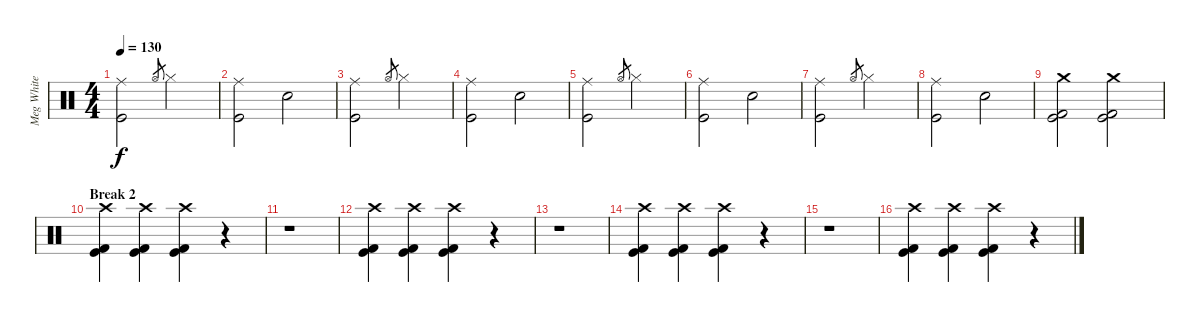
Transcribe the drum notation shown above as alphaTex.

\track ("Meg White (Drums)" "Meg White ") {instrument percussion}
\staff {score}
\articulation defaults
\ts (4 4)
\tempo 130
\clef neutral
\ks c
("Kick (hit)" "Ride (middle)").2{dy f} "Hi-Hat (open)"{h}.8{gr} "Hi-Hat (closed)".2 |
("Kick (hit)" "Ride (middle)").2 "Snare (hit) 2".2 |
("Kick (hit)" "Ride (middle)").2 "Hi-Hat (open)"{h}.8{gr} "Hi-Hat (closed)".2 |
("Kick (hit)" "Ride (middle)").2 "Snare (hit) 2".2 |
("Kick (hit)" "Ride (middle)").2 "Hi-Hat (open)"{h}.8{gr} "Hi-Hat (closed)".2 |
("Kick (hit)" "Ride (middle)").2 "Snare (hit) 2".2 |
("Kick (hit)" "Ride (middle)").2 "Hi-Hat (open)"{h}.8{gr} "Hi-Hat (closed)".2 |
("Kick (hit)" "Ride (middle)").2 "Snare (hit) 2".2 |
("Kick (hit)" "Kick (hit) 2" "Crash medium (hit)").2 ("Kick (hit)" "Kick (hit) 2" "Crash medium (hit)").2 |
\section ("" "Break 2")
("Kick (hit)" "Kick (hit) 2" "Crash high (hit)").4 ("Kick (hit)" "Kick (hit) 2" "Crash high (hit)").4 ("Kick (hit)" "Kick (hit) 2" "Crash high (hit)").4 r.4 |
r.1 |
("Kick (hit)" "Kick (hit) 2" "Crash high (hit)").4 ("Kick (hit)" "Kick (hit) 2" "Crash high (hit)").4 ("Kick (hit)" "Kick (hit) 2" "Crash high (hit)").4 r.4 |
r.1 |
("Kick (hit)" "Kick (hit) 2" "Crash high (hit)").4 ("Kick (hit)" "Kick (hit) 2" "Crash high (hit)").4 ("Kick (hit)" "Kick (hit) 2" "Crash high (hit)").4 r.4 |
r.1 |
("Kick (hit)" "Kick (hit) 2" "Crash high (hit)").4 ("Kick (hit)" "Kick (hit) 2" "Crash high (hit)").4 ("Kick (hit)" "Kick (hit) 2" "Crash high (hit)").4 r.4
